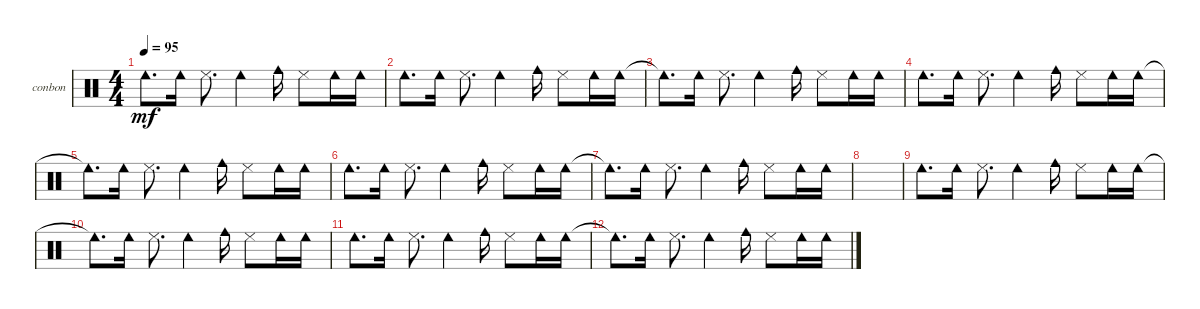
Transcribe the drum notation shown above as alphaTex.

\defaultSystemsLayout 4
\bracketExtendMode groupsimilarinstruments
\firstSystemTrackNameOrientation horizontal
\otherSystemsTrackNameOrientation horizontal
\track ("Bongos N Congas" "conbon") {instrument percussion}
\staff {score}
\articulation defaults
\ts (4 4)
\tempo 95
\clef neutral
\scale
0.333333
\ks c "Cowbell low (hit)"{t}.8{d dy mf} "Cowbell low (hit)".16 "Cowbell low (tip)".8{d} "Cowbell low (hit)".4 "Cowbell medium (hit)".16 "Cowbell low (tip)".8 "Cowbell low (hit)".16 "Cowbell low (hit)".16
|
\scale
0.333333 "Cowbell low (hit)".8{d} "Cowbell low (hit)".16 "Cowbell low (tip)".8{d} "Cowbell low (hit)".4 "Cowbell medium (hit)".16 "Cowbell low (tip)".8 "Cowbell low (hit)".16 "Cowbell low (hit)".16 |
\scale
0.333333 "Cowbell low (hit)"{t}.8{d} "Cowbell low (hit)".16 "Cowbell low (tip)".8{d} "Cowbell low (hit)".4 "Cowbell medium (hit)".16 "Cowbell low (tip)".8 "Cowbell low (hit)".16 "Cowbell low (hit)".16 |
\scale
0.333333 "Cowbell low (hit)".8{d} "Cowbell low (hit)".16 "Cowbell low (tip)".8{d} "Cowbell low (hit)".4 "Cowbell medium (hit)".16 "Cowbell low (tip)".8 "Cowbell low (hit)".16 "Cowbell low (hit)".16 |
\scale
0.333333 "Cowbell low (hit)"{t}.8{d} "Cowbell low (hit)".16 "Cowbell low (tip)".8{d} "Cowbell low (hit)".4 "Cowbell medium (hit)".16 "Cowbell low (tip)".8 "Cowbell low (hit)".16 "Cowbell low (hit)".16 |
\scale
0.333333 "Cowbell low (hit)".8{d} "Cowbell low (hit)".16 "Cowbell low (tip)".8{d} "Cowbell low (hit)".4 "Cowbell medium (hit)".16 "Cowbell low (tip)".8 "Cowbell low (hit)".16 "Cowbell low (hit)".16 |
\scale
0.333333 "Cowbell low (hit)"{t}.8{d} "Cowbell low (hit)".16 "Cowbell low (tip)".8{d} "Cowbell low (hit)".4 "Cowbell medium (hit)".16 "Cowbell low (tip)".8 "Cowbell low (hit)".16 "Cowbell low (hit)".16 |
\scale
0.333333 |
\scale
0.333333 "Cowbell low (hit)".8{d} "Cowbell low (hit)".16 "Cowbell low (tip)".8{d} "Cowbell low (hit)".4 "Cowbell medium (hit)".16 "Cowbell low (tip)".8 "Cowbell low (hit)".16 "Cowbell low (hit)".16 |
\scale
0.333333 "Cowbell low (hit)"{t}.8{d} "Cowbell low (hit)".16 "Cowbell low (tip)".8{d} "Cowbell low (hit)".4 "Cowbell medium (hit)".16 "Cowbell low (tip)".8 "Cowbell low (hit)".16 "Cowbell low (hit)".16 |
\scale
0.333333 "Cowbell low (hit)".8{d} "Cowbell low (hit)".16 "Cowbell low (tip)".8{d} "Cowbell low (hit)".4 "Cowbell medium (hit)".16 "Cowbell low (tip)".8 "Cowbell low (hit)".16 "Cowbell low (hit)".16 |
"Cowbell low (hit)"{t}.8{d} "Cowbell low (hit)".16 "Cowbell low (tip)".8{d} "Cowbell low (hit)".4 "Cowbell medium (hit)".16 "Cowbell low (tip)".8 "Cowbell low (hit)".16 "Cowbell low (hit)".16
